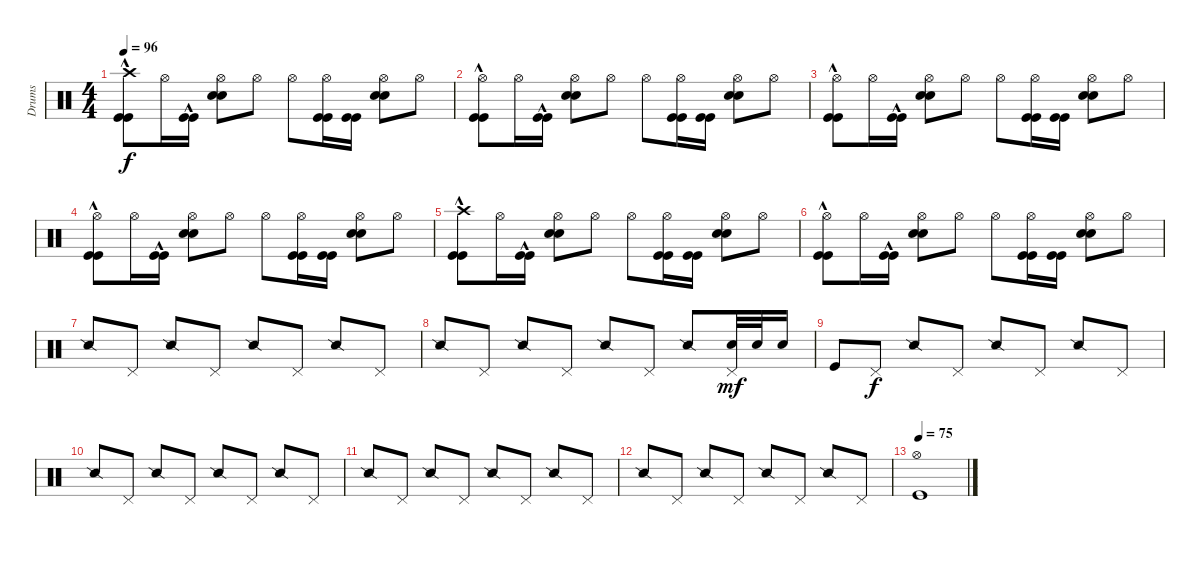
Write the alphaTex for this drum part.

\track ("Drums" "Drums") {instrument percussion}
\staff {score}
\articulation defaults
\ts (4 4)
\tempo 96
\clef neutral
\ks c
("Kick (hit)"{hac} "Kick (hit)"{hac} "Crash high (hit)").8{dy f} "Hi-Hat (open)".16 ("Kick (hit)"{hac} "Kick (hit)"{hac}).16 ("Snare (hit) 2" "Snare (hit) 2" "Hi-Hat (open)").8 "Hi-Hat (open)".8 "Hi-Hat (open)".8 ("Kick (hit)" "Kick (hit)" "Hi-Hat (open)").16 ("Kick (hit)" "Kick (hit)").16 ("Snare (hit) 2" "Snare (hit) 2" "Hi-Hat (open)").8 "Hi-Hat (open)".8 |
("Kick (hit)"{hac} "Kick (hit)"{hac} "Hi-Hat (open)").8 "Hi-Hat (open)".16 ("Kick (hit)"{hac} "Kick (hit)"{hac}).16 ("Snare (hit) 2" "Snare (hit) 2" "Hi-Hat (open)").8 "Hi-Hat (open)".8 "Hi-Hat (open)".8 ("Kick (hit)" "Kick (hit)" "Hi-Hat (open)").16 ("Kick (hit)" "Kick (hit)").16 ("Snare (hit) 2" "Snare (hit) 2" "Hi-Hat (open)").8 "Hi-Hat (open)".8 |
("Kick (hit)"{hac} "Kick (hit)"{hac} "Hi-Hat (open)").8 "Hi-Hat (open)".16 ("Kick (hit)"{hac} "Kick (hit)"{hac}).16 ("Snare (hit) 2" "Snare (hit) 2" "Hi-Hat (open)").8 "Hi-Hat (open)".8 "Hi-Hat (open)".8 ("Kick (hit)" "Kick (hit)" "Hi-Hat (open)").16 ("Kick (hit)" "Kick (hit)").16 ("Snare (hit) 2" "Snare (hit) 2" "Hi-Hat (open)").8 "Hi-Hat (open)".8 |
("Kick (hit)"{hac} "Kick (hit)"{hac} "Hi-Hat (open)").8 "Hi-Hat (open)".16 ("Kick (hit)"{hac} "Kick (hit)"{hac}).16 ("Snare (hit) 2" "Snare (hit) 2" "Hi-Hat (open)").8 "Hi-Hat (open)".8 "Hi-Hat (open)".8 ("Kick (hit)" "Kick (hit)" "Hi-Hat (open)").16 ("Kick (hit)" "Kick (hit)").16 ("Snare (hit) 2" "Snare (hit) 2" "Hi-Hat (open)").8 "Hi-Hat (open)".8 |
("Kick (hit)"{hac} "Kick (hit)"{hac} "Crash high (hit)").8 "Hi-Hat (open)".16 ("Kick (hit)"{hac} "Kick (hit)"{hac}).16 ("Snare (hit) 2" "Snare (hit) 2" "Hi-Hat (open)").8 "Hi-Hat (open)".8 "Hi-Hat (open)".8 ("Kick (hit)" "Kick (hit)" "Hi-Hat (open)").16 ("Kick (hit)" "Kick (hit)").16 ("Snare (hit) 2" "Snare (hit) 2" "Hi-Hat (open)").8 "Hi-Hat (open)".8 |
("Kick (hit)"{hac} "Kick (hit)"{hac} "Hi-Hat (open)").8 "Hi-Hat (open)".16 ("Kick (hit)"{hac} "Kick (hit)"{hac}).16 ("Snare (hit) 2" "Snare (hit) 2" "Hi-Hat (open)").8 "Hi-Hat (open)".8 "Hi-Hat (open)".8 ("Kick (hit)" "Kick (hit)" "Hi-Hat (open)").16 ("Kick (hit)" "Kick (hit)").16 ("Snare (hit) 2" "Snare (hit) 2" "Hi-Hat (open)").8 "Hi-Hat (open)".8 |
"Snare (side stick) 2".8{volume 12} "Pedal Hi-Hat (hit)".8 "Snare (side stick) 2".8 "Pedal Hi-Hat (hit)".8 "Snare (side stick) 2".8 "Pedal Hi-Hat (hit)".8 "Snare (side stick) 2".8 "Pedal Hi-Hat (hit)".8 |
"Snare (side stick) 2".8{volume 9} "Pedal Hi-Hat (hit)".8 "Snare (side stick) 2".8 "Pedal Hi-Hat (hit)".8 "Snare (side stick) 2".8 "Pedal Hi-Hat (hit)".8 "Snare (side stick) 2".8 ("Pedal Hi-Hat (hit)" "Snare (hit) 2").32{dy mf} "Snare (hit) 2".32 "Snare (hit) 2".16 |
"Kick (hit)".8 "Pedal Hi-Hat (hit)".8{dy f} "Snare (side stick) 2".8 "Pedal Hi-Hat (hit)".8 "Snare (side stick) 2".8 "Pedal Hi-Hat (hit)".8 "Snare (side stick) 2".8 "Pedal Hi-Hat (hit)".8 |
"Snare (side stick) 2".8 "Pedal Hi-Hat (hit)".8 "Snare (side stick) 2".8 "Pedal Hi-Hat (hit)".8 "Snare (side stick) 2".8 "Pedal Hi-Hat (hit)".8 "Snare (side stick) 2".8 "Pedal Hi-Hat (hit)".8 |
"Snare (side stick) 2".8 "Pedal Hi-Hat (hit)".8 "Snare (side stick) 2".8 "Pedal Hi-Hat (hit)".8 "Snare (side stick) 2".8 "Pedal Hi-Hat (hit)".8 "Snare (side stick) 2".8 "Pedal Hi-Hat (hit)".8 |
"Snare (side stick) 2".8 "Pedal Hi-Hat (hit)".8 "Snare (side stick) 2".8 "Pedal Hi-Hat (hit)".8 "Snare (side stick) 2".8 "Pedal Hi-Hat (hit)".8 "Snare (side stick) 2".8 "Pedal Hi-Hat (hit)".8 |
\tempo 75
("Hi-Hat (open)" "Kick (hit)").1
